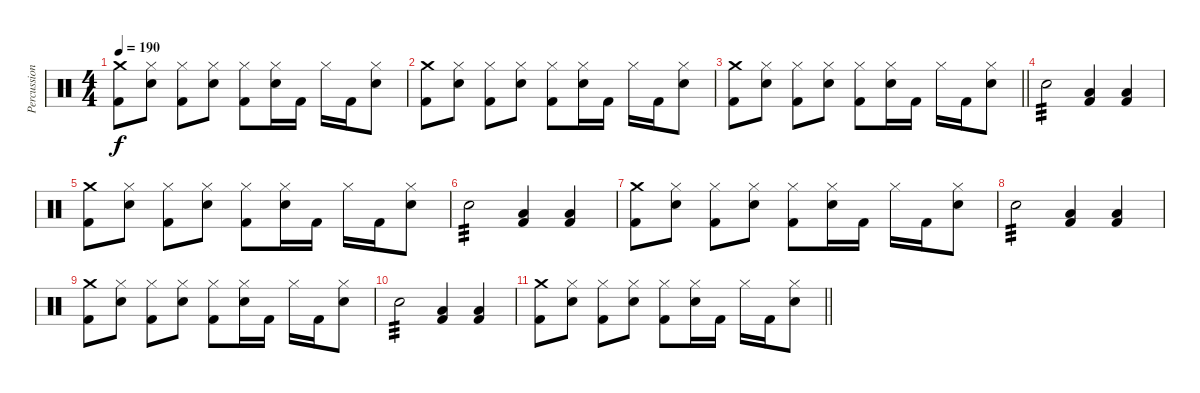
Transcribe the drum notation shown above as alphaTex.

\track ("Percussion" "Percussion") {instrument percussion}
\staff {score}
\articulation defaults
\ts (4 4)
\tempo 190
\clef neutral
\ks c
("Crash medium (hit)" "Kick (hit) 2").8{dy f} ("Hi-Hat (closed)" "Electric Snare (hit)").8 ("Hi-Hat (closed)" "Kick (hit) 2").8 ("Hi-Hat (closed)" "Electric Snare (hit)").8 ("Hi-Hat (closed)" "Kick (hit) 2").8 ("Hi-Hat (closed)" "Electric Snare (hit)").16 "Kick (hit) 2".16 "Hi-Hat (closed)".16 "Kick (hit) 2".16 ("Hi-Hat (closed)" "Electric Snare (hit)").8 |
("Crash medium (hit)" "Kick (hit) 2").8 ("Hi-Hat (closed)" "Electric Snare (hit)").8 ("Hi-Hat (closed)" "Kick (hit) 2").8 ("Hi-Hat (closed)" "Electric Snare (hit)").8 ("Hi-Hat (closed)" "Kick (hit) 2").8 ("Hi-Hat (closed)" "Electric Snare (hit)").16 "Kick (hit) 2".16 "Hi-Hat (closed)".16 "Kick (hit) 2".16 ("Hi-Hat (closed)" "Electric Snare (hit)").8 |
\barLineRight lightlight
("Crash medium (hit)" "Kick (hit) 2").8 ("Hi-Hat (closed)" "Electric Snare (hit)").8 ("Hi-Hat (closed)" "Kick (hit) 2").8 ("Hi-Hat (closed)" "Electric Snare (hit)").8 ("Hi-Hat (closed)" "Kick (hit) 2").8 ("Hi-Hat (closed)" "Electric Snare (hit)").16 "Kick (hit) 2".16 "Hi-Hat (closed)".16 "Kick (hit) 2".16 ("Hi-Hat (closed)" "Electric Snare (hit)").8 |
"Electric Snare (hit)".2{tp 3} ("Low Floor Tom (hit)" "Kick (hit) 2").4 ("Low Floor Tom (hit)" "Kick (hit) 2").4 |
("Crash medium (hit)" "Kick (hit) 2").8 ("Hi-Hat (closed)" "Electric Snare (hit)").8 ("Hi-Hat (closed)" "Kick (hit) 2").8 ("Hi-Hat (closed)" "Electric Snare (hit)").8 ("Hi-Hat (closed)" "Kick (hit) 2").8 ("Hi-Hat (closed)" "Electric Snare (hit)").16 "Kick (hit) 2".16 "Hi-Hat (closed)".16 "Kick (hit) 2".16 ("Hi-Hat (closed)" "Electric Snare (hit)").8 |
"Electric Snare (hit)".2{tp 3} ("Low Floor Tom (hit)" "Kick (hit) 2").4 ("Low Floor Tom (hit)" "Kick (hit) 2").4 |
("Crash medium (hit)" "Kick (hit) 2").8 ("Hi-Hat (closed)" "Electric Snare (hit)").8 ("Hi-Hat (closed)" "Kick (hit) 2").8 ("Hi-Hat (closed)" "Electric Snare (hit)").8 ("Hi-Hat (closed)" "Kick (hit) 2").8 ("Hi-Hat (closed)" "Electric Snare (hit)").16 "Kick (hit) 2".16 "Hi-Hat (closed)".16 "Kick (hit) 2".16 ("Hi-Hat (closed)" "Electric Snare (hit)").8 |
"Electric Snare (hit)".2{tp 3} ("Low Floor Tom (hit)" "Kick (hit) 2").4 ("Low Floor Tom (hit)" "Kick (hit) 2").4 |
("Crash medium (hit)" "Kick (hit) 2").8 ("Hi-Hat (closed)" "Electric Snare (hit)").8 ("Hi-Hat (closed)" "Kick (hit) 2").8 ("Hi-Hat (closed)" "Electric Snare (hit)").8 ("Hi-Hat (closed)" "Kick (hit) 2").8 ("Hi-Hat (closed)" "Electric Snare (hit)").16 "Kick (hit) 2".16 "Hi-Hat (closed)".16 "Kick (hit) 2".16 ("Hi-Hat (closed)" "Electric Snare (hit)").8 |
"Electric Snare (hit)".2{tp 3} ("Low Floor Tom (hit)" "Kick (hit) 2").4 ("Low Floor Tom (hit)" "Kick (hit) 2").4 |
\barLineRight lightlight
("Crash medium (hit)" "Kick (hit) 2").8 ("Hi-Hat (closed)" "Electric Snare (hit)").8 ("Hi-Hat (closed)" "Kick (hit) 2").8 ("Hi-Hat (closed)" "Electric Snare (hit)").8 ("Hi-Hat (closed)" "Kick (hit) 2").8 ("Hi-Hat (closed)" "Electric Snare (hit)").16 "Kick (hit) 2".16 "Hi-Hat (closed)".16 "Kick (hit) 2".16 ("Hi-Hat (closed)" "Electric Snare (hit)").8
